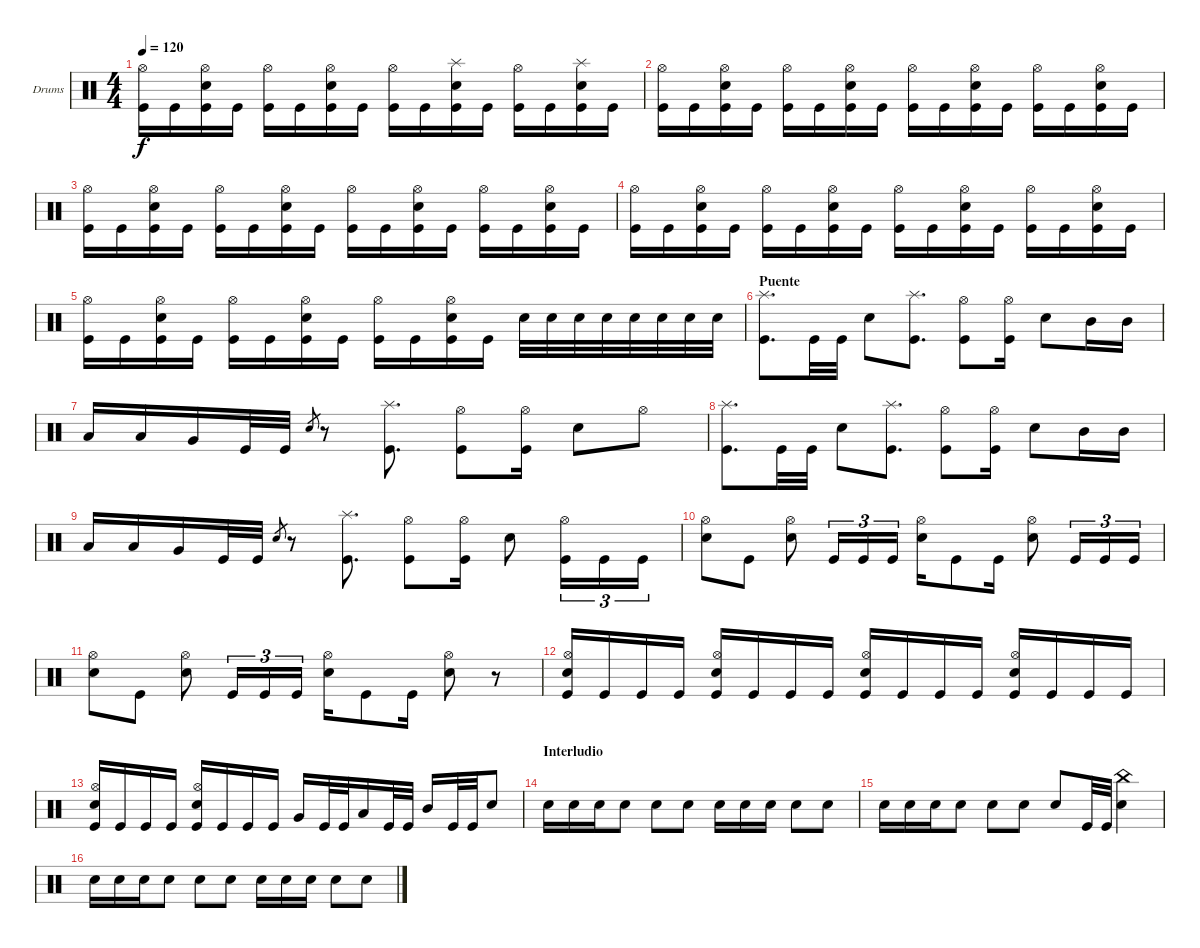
\bracketExtendMode groupsimilarinstruments
\firstSystemTrackNameOrientation horizontal
\otherSystemsTrackNameOrientation horizontal
\track ("Drumkit" "Drums") {instrument percussion}
\staff {score}
\articulation defaults
\ts (4 4)
\tempo 120
\clef neutral
\ks c
("Kick (hit)" "Hi-Hat (open)").16{dy f} "Kick (hit)".16 ("Kick (hit)" "Snare (hit) 2" "Hi-Hat (open)").16 "Kick (hit)".16 ("Kick (hit)" "Hi-Hat (open)").16 "Kick (hit)".16 ("Kick (hit)" "Snare (hit) 2" "Hi-Hat (open)").16 "Kick (hit)".16 ("Kick (hit)" "Hi-Hat (open)").16 "Kick (hit)".16 ("Kick (hit)" "Snare (hit) 2" "Splash (hit)").16 "Kick (hit)".16 ("Kick (hit)" "Hi-Hat (open)").16 "Kick (hit)".16 ("Kick (hit)" "Snare (hit) 2" "Splash (hit)").16 "Kick (hit)".16 |
("Kick (hit)" "Hi-Hat (open)").16 "Kick (hit)".16 ("Kick (hit)" "Snare (hit) 2" "Hi-Hat (open)").16 "Kick (hit)".16 ("Kick (hit)" "Hi-Hat (open)").16 "Kick (hit)".16 ("Kick (hit)" "Snare (hit) 2" "Hi-Hat (open)").16 "Kick (hit)".16 ("Kick (hit)" "Hi-Hat (open)").16 "Kick (hit)".16 ("Kick (hit)" "Snare (hit) 2" "Hi-Hat (open)").16 "Kick (hit)".16 ("Kick (hit)" "Hi-Hat (open)").16 "Kick (hit)".16 ("Kick (hit)" "Snare (hit) 2" "Hi-Hat (open)").16 "Kick (hit)".16 |
("Kick (hit)" "Hi-Hat (open)").16 "Kick (hit)".16 ("Kick (hit)" "Snare (hit) 2" "Hi-Hat (open)").16 "Kick (hit)".16 ("Kick (hit)" "Hi-Hat (open)").16 "Kick (hit)".16 ("Kick (hit)" "Snare (hit) 2" "Hi-Hat (open)").16 "Kick (hit)".16 ("Kick (hit)" "Hi-Hat (open)").16 "Kick (hit)".16 ("Kick (hit)" "Snare (hit) 2" "Hi-Hat (open)").16 "Kick (hit)".16 ("Kick (hit)" "Hi-Hat (open)").16 "Kick (hit)".16 ("Kick (hit)" "Snare (hit) 2" "Hi-Hat (open)").16 "Kick (hit)".16 |
("Kick (hit)" "Hi-Hat (open)").16 "Kick (hit)".16 ("Kick (hit)" "Snare (hit) 2" "Hi-Hat (open)").16 "Kick (hit)".16 ("Kick (hit)" "Hi-Hat (open)").16 "Kick (hit)".16 ("Kick (hit)" "Snare (hit) 2" "Hi-Hat (open)").16 "Kick (hit)".16 ("Kick (hit)" "Hi-Hat (open)").16 "Kick (hit)".16 ("Kick (hit)" "Snare (hit) 2" "Hi-Hat (open)").16 "Kick (hit)".16 ("Kick (hit)" "Hi-Hat (open)").16 "Kick (hit)".16 ("Kick (hit)" "Snare (hit) 2" "Hi-Hat (open)").16 "Kick (hit)".16 |
("Kick (hit)" "Hi-Hat (open)").16 "Kick (hit)".16 ("Kick (hit)" "Snare (hit) 2" "Hi-Hat (open)").16 "Kick (hit)".16 ("Kick (hit)" "Hi-Hat (open)").16 "Kick (hit)".16 ("Kick (hit)" "Snare (hit) 2" "Hi-Hat (open)").16 "Kick (hit)".16 ("Kick (hit)" "Hi-Hat (open)").16 "Kick (hit)".16 ("Kick (hit)" "Snare (hit) 2" "Hi-Hat (open)").16 "Kick (hit)".16 "Snare (hit) 2".32 "Snare (hit) 2".32 "Snare (hit) 2".32 "Snare (hit) 2".32 "Snare (hit) 2".32 "Snare (hit) 2".32 "Snare (hit) 2".32 "Snare (hit) 2".32 |
\section ("" "Puente")
("Kick (hit)" "Splash (hit)").8{d} "Kick (hit)".32 "Kick (hit)".32 "Snare (hit) 2".8 ("Kick (hit)" "Splash (hit)").8{d} ("Kick (hit)" "Hi-Hat (open)").8 ("Kick (hit)" "Hi-Hat (open)").16 "Snare (hit) 2".8 "Mid Tom (hit)".16 "Mid Tom (hit)".16 |
"Low Tom (hit)".16 "Low Tom (hit)".16 "Very Low Tom (hit)".16 "Kick (hit)".32 "Kick (hit)".32 "Snare (hit) 2".8{gr} r.8 ("Kick (hit)" "Splash (hit)").8{d} ("Kick (hit)" "Hi-Hat (open)").8 ("Kick (hit)" "Hi-Hat (open)").16 "Snare (hit) 2".8 "Hi-Hat (open)".8 |
("Kick (hit)" "Splash (hit)").8{d} "Kick (hit)".32 "Kick (hit)".32 "Snare (hit) 2".8 ("Kick (hit)" "Splash (hit)").8{d} ("Kick (hit)" "Hi-Hat (open)").8 ("Kick (hit)" "Hi-Hat (open)").16 "Snare (hit) 2".8 "Mid Tom (hit)".16 "Mid Tom (hit)".16 |
"Low Tom (hit)".16 "Low Tom (hit)".16 "Very Low Tom (hit)".16 "Kick (hit)".32 "Kick (hit)".32 "Snare (hit) 2".8{gr} r.8 ("Kick (hit)" "Splash (hit)").8{d} ("Kick (hit)" "Hi-Hat (open)").8 ("Kick (hit)" "Hi-Hat (open)").16 "Snare (hit) 2".8 ("Hi-Hat (open)" "Kick (hit)").16{tu (3 2)} "Kick (hit)".16{tu (3 2)} "Kick (hit)".16{tu (3 2)} |
("Snare (hit) 2" "Hi-Hat (open)").8 "Kick (hit)".8 ("Snare (hit) 2" "Hi-Hat (open)").8 "Kick (hit)".16{tu (3 2)} "Kick (hit)".16{tu (3 2)} "Kick (hit)".16{tu (3 2)} ("Snare (hit) 2" "Hi-Hat (open)").16 "Kick (hit)".8 "Kick (hit)".16 ("Snare (hit) 2" "Hi-Hat (open)").8 "Kick (hit)".16{tu (3 2)} "Kick (hit)".16{tu (3 2)} "Kick (hit)".16{tu (3 2)} |
("Snare (hit) 2" "Hi-Hat (open)").8 "Kick (hit)".8 ("Snare (hit) 2" "Hi-Hat (open)").8 "Kick (hit)".16{tu (3 2)} "Kick (hit)".16{tu (3 2)} "Kick (hit)".16{tu (3 2)} ("Snare (hit) 2" "Hi-Hat (open)").16 "Kick (hit)".8 "Kick (hit)".16 ("Snare (hit) 2" "Hi-Hat (open)").8 r.8 |
("Kick (hit)" "Snare (hit) 2" "Hi-Hat (open)").16 "Kick (hit)".16 "Kick (hit)".16 "Kick (hit)".16 ("Kick (hit)" "Snare (hit) 2" "Hi-Hat (open)").16 "Kick (hit)".16 "Kick (hit)".16 "Kick (hit)".16 ("Kick (hit)" "Snare (hit) 2" "Hi-Hat (open)").16 "Kick (hit)".16 "Kick (hit)".16 "Kick (hit)".16 ("Kick (hit)" "Snare (hit) 2" "Hi-Hat (open)").16 "Kick (hit)".16 "Kick (hit)".16 "Kick (hit)".16 |
("Kick (hit)" "Snare (hit) 2" "Hi-Hat (open)").16 "Kick (hit)".16 "Kick (hit)".16 "Kick (hit)".16 ("Kick (hit)" "Snare (hit) 2" "Hi-Hat (open)").16 "Kick (hit)".16 "Kick (hit)".16 "Kick (hit)".16 "Very Low Tom (hit)".16 "Kick (hit)".32 "Kick (hit)".32 "Low Tom (hit)".16 "Kick (hit)".32 "Kick (hit)".32 "Mid Tom (hit)".16 "Kick (hit)".32 "Kick (hit)".32 "Snare (hit) 2".8 |
\section ("" "Interludio")
"Snare (hit) 2".16 "Snare (hit) 2".16 "Snare (hit) 2".16 "Snare (hit) 2".8 "Snare (hit) 2".8 "Snare (hit) 2".8 "Snare (hit) 2".16 "Snare (hit) 2".16 "Snare (hit) 2".16 "Snare (hit) 2".8 "Snare (hit) 2".8 |
"Snare (hit) 2".16 "Snare (hit) 2".16 "Snare (hit) 2".16 "Snare (hit) 2".8 "Snare (hit) 2".8 "Snare (hit) 2".8 "Snare (hit) 2".8 "Kick (hit)".32 "Kick (hit)".32 ("Snare (hit) 2" "China (hit)").4 |
"Snare (hit) 2".16 "Snare (hit) 2".16 "Snare (hit) 2".16 "Snare (hit) 2".8 "Snare (hit) 2".8 "Snare (hit) 2".8 "Snare (hit) 2".16 "Snare (hit) 2".16 "Snare (hit) 2".16 "Snare (hit) 2".8 "Snare (hit) 2".8
